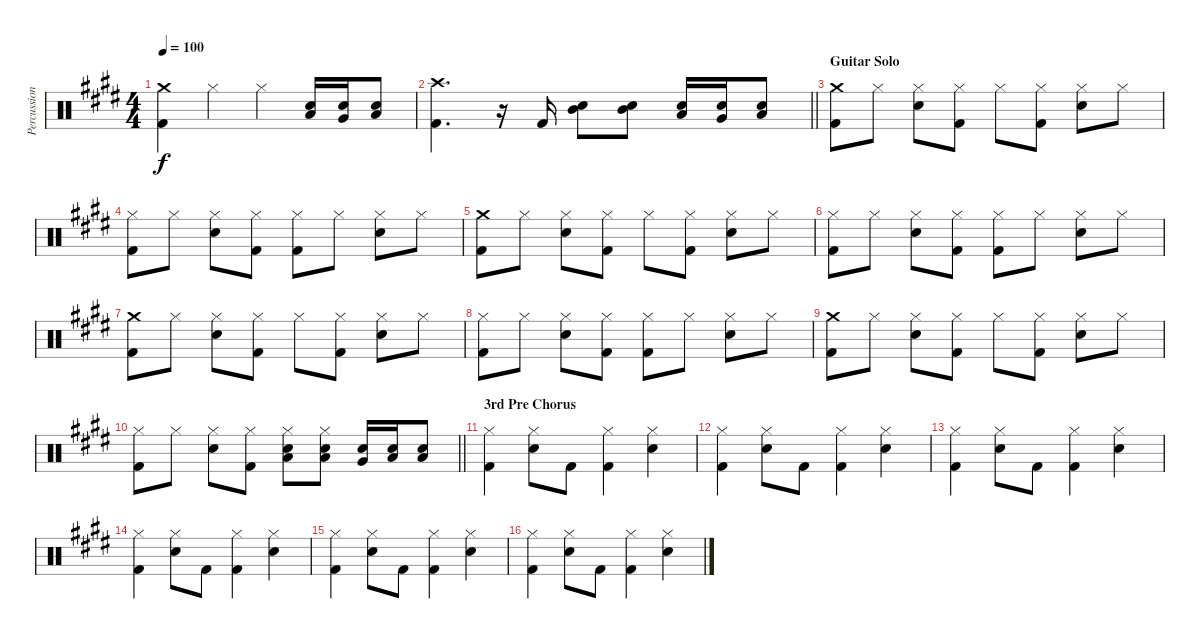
\track ("Percussion" "Percussion") {instrument percussion}
\staff {score}
\articulation defaults
\ts (4 4)
\tempo 100
\clef neutral
\ks c#minor
("Crash medium (hit)" "Kick (hit) 2").4{dy f} "Hi-Hat (closed)".4 "Hi-Hat (closed)".4 ("Snare (hit) 2" "Low Tom (hit)").16 ("Snare (hit) 2" "Very Low Tom (hit)").16 ("Snare (hit) 2" "Low Floor Tom (hit)").8 |
\barLineRight lightlight
("Crash high (hit)" "Kick (hit) 2").4{d} r.16 "Kick (hit) 2".16 ("Snare (hit) 2" "Mid Tom (hit)").8 ("Snare (hit) 2" "Mid Tom (hit)").8 ("Snare (hit) 2" "Low Tom (hit)").16 ("Snare (hit) 2" "Very Low Tom (hit)").16 ("Snare (hit) 2" "Low Floor Tom (hit)").8 |
\section ("" "Guitar Solo")
("Crash medium (hit)" "Kick (hit) 2").8 "Hi-Hat (closed)".8 ("Hi-Hat (closed)" "Snare (hit) 2").8 ("Hi-Hat (closed)" "Kick (hit) 2").8 "Hi-Hat (closed)".8 ("Hi-Hat (closed)" "Kick (hit) 2").8 ("Hi-Hat (closed)" "Snare (hit) 2").8 "Hi-Hat (closed)".8 |
("Hi-Hat (closed)" "Kick (hit) 2").8 "Hi-Hat (closed)".8 ("Hi-Hat (closed)" "Snare (hit) 2").8 ("Hi-Hat (closed)" "Kick (hit) 2").8 ("Hi-Hat (closed)" "Kick (hit) 2").8 "Hi-Hat (closed)".8 ("Hi-Hat (closed)" "Snare (hit) 2").8 "Hi-Hat (closed)".8 |
("Crash medium (hit)" "Kick (hit) 2").8 "Hi-Hat (closed)".8 ("Hi-Hat (closed)" "Snare (hit) 2").8 ("Hi-Hat (closed)" "Kick (hit) 2").8 "Hi-Hat (closed)".8 ("Hi-Hat (closed)" "Kick (hit) 2").8 ("Hi-Hat (closed)" "Snare (hit) 2").8 "Hi-Hat (closed)".8 |
("Hi-Hat (closed)" "Kick (hit) 2").8 "Hi-Hat (closed)".8 ("Hi-Hat (closed)" "Snare (hit) 2").8 ("Hi-Hat (closed)" "Kick (hit) 2").8 ("Hi-Hat (closed)" "Kick (hit) 2").8 "Hi-Hat (closed)".8 ("Hi-Hat (closed)" "Snare (hit) 2").8 "Hi-Hat (closed)".8 |
("Crash medium (hit)" "Kick (hit) 2").8 "Hi-Hat (closed)".8 ("Hi-Hat (closed)" "Snare (hit) 2").8 ("Hi-Hat (closed)" "Kick (hit) 2").8 "Hi-Hat (closed)".8 ("Hi-Hat (closed)" "Kick (hit) 2").8 ("Hi-Hat (closed)" "Snare (hit) 2").8 "Hi-Hat (closed)".8 |
("Hi-Hat (closed)" "Kick (hit) 2").8 "Hi-Hat (closed)".8 ("Hi-Hat (closed)" "Snare (hit) 2").8 ("Hi-Hat (closed)" "Kick (hit) 2").8 ("Hi-Hat (closed)" "Kick (hit) 2").8 "Hi-Hat (closed)".8 ("Hi-Hat (closed)" "Snare (hit) 2").8 "Hi-Hat (closed)".8 |
("Crash medium (hit)" "Kick (hit) 2").8 "Hi-Hat (closed)".8 ("Hi-Hat (closed)" "Snare (hit) 2").8 ("Hi-Hat (closed)" "Kick (hit) 2").8 "Hi-Hat (closed)".8 ("Hi-Hat (closed)" "Kick (hit) 2").8 ("Hi-Hat (closed)" "Snare (hit) 2").8 "Hi-Hat (closed)".8 |
\barLineRight lightlight
("Hi-Hat (closed)" "Kick (hit) 2").8 "Hi-Hat (closed)".8 ("Hi-Hat (closed)" "Snare (hit) 2").8 ("Hi-Hat (closed)" "Kick (hit) 2").8 ("Hi-Hat (closed)" "Snare (hit) 2" "Low Tom (hit)").8 ("Hi-Hat (closed)" "Snare (hit) 2" "Low Tom (hit)").8 ("Snare (hit) 2" "Very Low Tom (hit)").16 ("Snare (hit) 2" "Low Floor Tom (hit)").16 ("Snare (hit) 2" "Low Floor Tom (hit)").8 |
\section ("" "3rd Pre Chorus")
("Hi-Hat (closed)" "Kick (hit) 2").4 ("Hi-Hat (closed)" "Snare (hit) 2").8 "Kick (hit) 2".8 ("Hi-Hat (closed)" "Kick (hit) 2").4 ("Hi-Hat (closed)" "Snare (hit) 2").4 |
("Hi-Hat (closed)" "Kick (hit) 2").4 ("Hi-Hat (closed)" "Snare (hit) 2").8 "Kick (hit) 2".8 ("Hi-Hat (closed)" "Kick (hit) 2").4 ("Hi-Hat (closed)" "Snare (hit) 2").4 |
("Hi-Hat (closed)" "Kick (hit) 2").4 ("Hi-Hat (closed)" "Snare (hit) 2").8 "Kick (hit) 2".8 ("Hi-Hat (closed)" "Kick (hit) 2").4 ("Hi-Hat (closed)" "Snare (hit) 2").4 |
("Hi-Hat (closed)" "Kick (hit) 2").4 ("Hi-Hat (closed)" "Snare (hit) 2").8 "Kick (hit) 2".8 ("Hi-Hat (closed)" "Kick (hit) 2").4 ("Hi-Hat (closed)" "Snare (hit) 2").4 |
("Hi-Hat (closed)" "Kick (hit) 2").4 ("Hi-Hat (closed)" "Snare (hit) 2").8 "Kick (hit) 2".8 ("Hi-Hat (closed)" "Kick (hit) 2").4 ("Hi-Hat (closed)" "Snare (hit) 2").4 |
("Hi-Hat (closed)" "Kick (hit) 2").4 ("Hi-Hat (closed)" "Snare (hit) 2").8 "Kick (hit) 2".8 ("Hi-Hat (closed)" "Kick (hit) 2").4 ("Hi-Hat (closed)" "Snare (hit) 2").4
